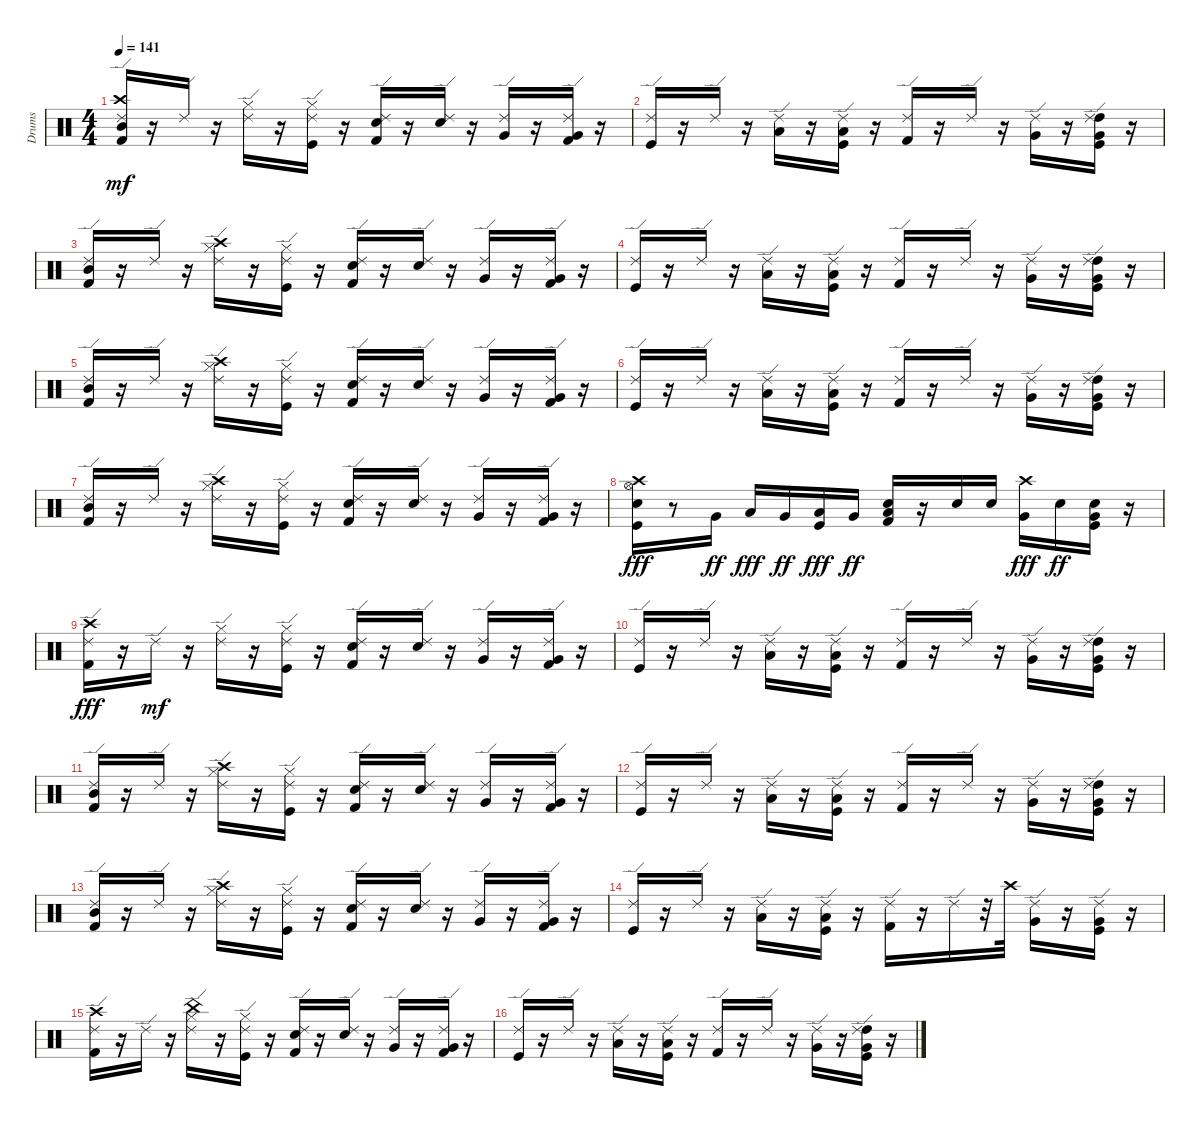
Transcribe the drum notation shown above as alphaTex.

\track ("Drums" "Drums") {instrument percussion}
\staff {score}
\articulation defaults
\ts (4 4)
\tempo 141
\clef neutral
\ks c
("Kick (hit) 2" "Ride (edge) 2" "Crash high (hit)" "Mid Tom (hit)").16{dy mf} r.16 "Ride (edge) 2".16 r.16 ("Hi-Hat (closed)" "Ride (edge) 2").16 r.16 ("Kick (hit)" "Hi-Hat (closed)" "Ride (edge) 2").16 r.16 ("Snare (hit) 2" "Kick (hit) 2" "Ride (edge) 2").16 r.16 ("Snare (hit) 2" "Ride (edge) 2").16 r.16 ("Very Low Tom (hit)" "Ride (edge) 2").16 r.16 ("Kick (hit) 2" "Very Low Tom (hit)" "Ride (edge) 2").16 r.16 |
("Kick (hit)" "Ride (edge) 2").16 r.16 "Ride (edge) 2".16 r.16 ("Low Floor Tom (hit)" "Ride (edge) 2").16 r.16 ("Kick (hit)" "Low Floor Tom (hit)" "Ride (edge) 2").16 r.16 ("Kick (hit) 2" "Ride (edge) 2").16 r.16 "Ride (edge) 2".16 r.16 ("Very Low Tom (hit)" "Ride (edge) 2").16 r.16 ("High Tom (hit)" "Kick (hit)" "Very Low Tom (hit)" "Ride (edge) 2").16 r.16 |
("Kick (hit) 2" "Ride (edge) 2" "Mid Tom (hit)").16 r.16 "Ride (edge) 2".16 r.16 ("Crash high (hit)" "Hi-Hat (closed)" "Ride (edge) 2").16 r.16 ("Kick (hit)" "Hi-Hat (closed)" "Ride (edge) 2").16 r.16 ("Snare (hit) 2" "Kick (hit) 2" "Ride (edge) 2").16 r.16 ("Snare (hit) 2" "Ride (edge) 2").16 r.16 ("Very Low Tom (hit)" "Ride (edge) 2").16 r.16 ("Kick (hit) 2" "Very Low Tom (hit)" "Ride (edge) 2").16 r.16 |
("Kick (hit)" "Ride (edge) 2").16 r.16 "Ride (edge) 2".16 r.16 ("Low Floor Tom (hit)" "Ride (edge) 2").16 r.16 ("Kick (hit)" "Low Floor Tom (hit)" "Ride (edge) 2").16 r.16 ("Kick (hit) 2" "Ride (edge) 2").16 r.16 "Ride (edge) 2".16 r.16 ("Very Low Tom (hit)" "Ride (edge) 2").16 r.16 ("High Tom (hit)" "Kick (hit)" "Very Low Tom (hit)" "Ride (edge) 2").16 r.16 |
("Kick (hit) 2" "Ride (edge) 2" "Mid Tom (hit)").16 r.16 "Ride (edge) 2".16 r.16 ("Crash high (hit)" "Hi-Hat (closed)" "Ride (edge) 2").16 r.16 ("Kick (hit)" "Hi-Hat (closed)" "Ride (edge) 2").16 r.16 ("Snare (hit) 2" "Kick (hit) 2" "Ride (edge) 2").16 r.16 ("Snare (hit) 2" "Ride (edge) 2").16 r.16 ("Very Low Tom (hit)" "Ride (edge) 2").16 r.16 ("Kick (hit) 2" "Very Low Tom (hit)" "Ride (edge) 2").16 r.16 |
("Kick (hit)" "Ride (edge) 2").16 r.16 "Ride (edge) 2".16 r.16 ("Low Floor Tom (hit)" "Ride (edge) 2").16 r.16 ("Kick (hit)" "Low Floor Tom (hit)" "Ride (edge) 2").16 r.16 ("Kick (hit) 2" "Ride (edge) 2").16 r.16 "Ride (edge) 2".16 r.16 ("Very Low Tom (hit)" "Ride (edge) 2").16 r.16 ("High Tom (hit)" "Kick (hit)" "Very Low Tom (hit)" "Ride (edge) 2").16 r.16 |
("Kick (hit) 2" "Ride (edge) 2" "Mid Tom (hit)").16 r.16 "Ride (edge) 2".16 r.16 ("Crash high (hit)" "Hi-Hat (closed)" "Ride (edge) 2").16 r.16 ("Kick (hit)" "Hi-Hat (closed)" "Ride (edge) 2").16 r.16 ("Snare (hit) 2" "Kick (hit) 2" "Ride (edge) 2").16 r.16 ("Snare (hit) 2" "Ride (edge) 2").16 r.16 ("Very Low Tom (hit)" "Ride (edge) 2").16 r.16 ("Kick (hit) 2" "Very Low Tom (hit)" "Ride (edge) 2").16 r.16 |
("Snare (hit) 2" "Kick (hit)" "Hi-Hat (open)" "Crash high (hit)").16{dy fff} r.8 "Very Low Tom (hit)".16{dy ff} "Low Floor Tom (hit)".16{dy fff} "Very Low Tom (hit)".16{dy ff} ("Kick (hit)" "Low Floor Tom (hit)").16{dy fff} "Very Low Tom (hit)".16{dy ff} ("Low Floor Tom (hit)" "Snare (hit) 2" "Kick (hit) 2").16 r.16 "Snare (hit) 2".16 "Snare (hit) 2".16 ("Crash high (hit)" "Very Low Tom (hit)").16{dy fff} "Snare (hit) 2".16{dy ff} ("Kick (hit)" "Very Low Tom (hit)" "Snare (hit) 2").16 r.16 |
("Kick (hit) 2" "Ride (edge) 2" "Crash high (hit)").16{dy fff} r.16 "Ride (edge) 2".16{dy mf} r.16 ("Hi-Hat (closed)" "Ride (edge) 2").16 r.16 ("Kick (hit)" "Hi-Hat (closed)" "Ride (edge) 2").16 r.16 ("Snare (hit) 2" "Kick (hit) 2" "Ride (edge) 2").16 r.16 ("Snare (hit) 2" "Ride (edge) 2").16 r.16 ("Very Low Tom (hit)" "Ride (edge) 2").16 r.16 ("Kick (hit) 2" "Very Low Tom (hit)" "Ride (edge) 2").16 r.16 |
("Kick (hit)" "Ride (edge) 2").16 r.16 "Ride (edge) 2".16 r.16 ("Low Floor Tom (hit)" "Ride (edge) 2").16 r.16 ("Kick (hit)" "Low Floor Tom (hit)" "Ride (edge) 2").16 r.16 ("Kick (hit) 2" "Ride (edge) 2").16 r.16 "Ride (edge) 2".16 r.16 ("Very Low Tom (hit)" "Ride (edge) 2").16 r.16 ("High Tom (hit)" "Kick (hit)" "Very Low Tom (hit)" "Ride (edge) 2").16 r.16 |
("Kick (hit) 2" "Ride (edge) 2" "Mid Tom (hit)").16 r.16 "Ride (edge) 2".16 r.16 ("Crash high (hit)" "Hi-Hat (closed)" "Ride (edge) 2").16 r.16 ("Kick (hit)" "Hi-Hat (closed)" "Ride (edge) 2").16 r.16 ("Snare (hit) 2" "Kick (hit) 2" "Ride (edge) 2").16 r.16 ("Snare (hit) 2" "Ride (edge) 2").16 r.16 ("Very Low Tom (hit)" "Ride (edge) 2").16 r.16 ("Kick (hit) 2" "Very Low Tom (hit)" "Ride (edge) 2").16 r.16 |
("Kick (hit)" "Ride (edge) 2").16 r.16 "Ride (edge) 2".16 r.16 ("Low Floor Tom (hit)" "Ride (edge) 2").16 r.16 ("Kick (hit)" "Low Floor Tom (hit)" "Ride (edge) 2").16 r.16 ("Kick (hit) 2" "Ride (edge) 2").16 r.16 "Ride (edge) 2".16 r.16 ("Very Low Tom (hit)" "Ride (edge) 2").16 r.16 ("High Tom (hit)" "Kick (hit)" "Very Low Tom (hit)" "Ride (edge) 2").16 r.16 |
("Kick (hit) 2" "Ride (edge) 2" "Mid Tom (hit)").16 r.16 "Ride (edge) 2".16 r.16 ("Crash high (hit)" "Hi-Hat (closed)" "Ride (edge) 2").16 r.16 ("Kick (hit)" "Hi-Hat (closed)" "Ride (edge) 2").16 r.16 ("Snare (hit) 2" "Kick (hit) 2" "Ride (edge) 2").16 r.16 ("Snare (hit) 2" "Ride (edge) 2").16 r.16 ("Very Low Tom (hit)" "Ride (edge) 2").16 r.16 ("Kick (hit) 2" "Very Low Tom (hit)" "Ride (edge) 2").16 r.16 |
("Kick (hit)" "Ride (edge) 2").16 r.16 "Ride (edge) 2".16 r.16 ("Low Floor Tom (hit)" "Ride (edge) 2").16 r.16 ("Kick (hit)" "Low Floor Tom (hit)" "Ride (edge) 2").16 r.16 ("Kick (hit) 2" "Ride (edge) 2").16 r.16 "Ride (edge) 2".16 r.32 "Crash high (hit)".32 ("Very Low Tom (hit)" "Ride (edge) 2").16 r.16 ("Kick (hit)" "Very Low Tom (hit)" "Ride (edge) 2").16 r.16 |
("Crash high (hit)" "Kick (hit) 2" "Ride (edge) 2").16 r.16 "Ride (edge) 2".16 r.16 ("Hi-Hat (closed)" "China (hit)" "Ride (edge) 2").16 r.16 ("Kick (hit)" "Hi-Hat (closed)" "Ride (edge) 2").16 r.16 ("Snare (hit) 2" "Kick (hit) 2" "Ride (edge) 2").16 r.16 ("Snare (hit) 2" "Ride (edge) 2").16 r.16 ("Very Low Tom (hit)" "Ride (edge) 2").16 r.16 ("Kick (hit) 2" "Very Low Tom (hit)" "Ride (edge) 2").16 r.16 |
("Kick (hit)" "Ride (edge) 2").16 r.16 "Ride (edge) 2".16 r.16 ("Low Floor Tom (hit)" "Ride (edge) 2").16 r.16 ("Kick (hit)" "Low Floor Tom (hit)" "Ride (edge) 2").16 r.16 ("Kick (hit) 2" "Ride (edge) 2").16 r.16 "Ride (edge) 2".16 r.16 ("Very Low Tom (hit)" "Ride (edge) 2").16 r.16 ("High Tom (hit)" "Kick (hit)" "Very Low Tom (hit)" "Ride (edge) 2").16 r.16
